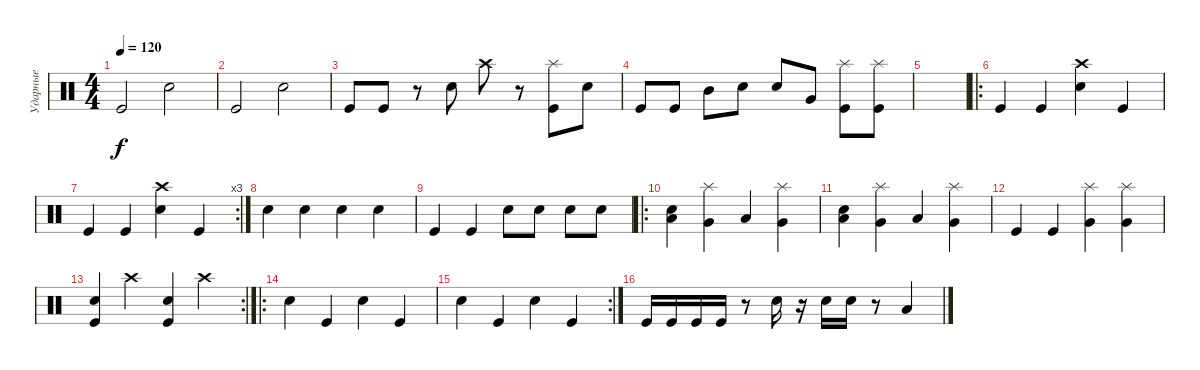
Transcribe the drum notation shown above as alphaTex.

\track ("Ударные" "Ударные") {instrument percussion}
\staff {score}
\articulation defaults
\ts (4 4)
\tempo 120
\clef neutral
\ks c "Kick (hit)".2{dy f} "Snare (hit) 2".2
|
"Kick (hit)".2 "Snare (hit) 2".2 |
"Kick (hit)".8 "Kick (hit)".8 r.8 "Snare (hit) 2".8 "Crash high (hit)".8 r.8 ("Kick (hit)" "Splash (hit)").8 "Snare (hit) 2".8 |
"Kick (hit)".8 "Kick (hit)".8 "Mid Tom (hit)".8 "Snare (hit) 2".8 "Snare (hit) 2".8 "Very Low Tom (hit)".8 ("Kick (hit)" "Splash (hit)").8 ("Kick (hit)" "Splash (hit)").8 |
|
\ro "Kick (hit)".4 "Kick (hit)".4
("Crash high (hit)" "Electric Snare (hit)").4 "Kick (hit)".4 |
\rc 3 "Kick (hit)".4 "Kick (hit)".4
("Crash high (hit)" "Electric Snare (hit)").4 "Kick (hit)".4 |
"Electric Snare (hit)".4 "Electric Snare (hit)".4 "Electric Snare (hit)".4 "Electric Snare (hit)".4 |
"Kick (hit)".4 "Kick (hit)".4 "Electric Snare (hit)".8 "Electric Snare (hit)".8 "Electric Snare (hit)".8 "Electric Snare (hit)".8 |
\ro
("Low Tom (hit)" "Electric Snare (hit)").4 ("Very Low Tom (hit)" "Splash (hit)").4 "Low Tom (hit)".4 ("Very Low Tom (hit)" "Splash (hit)").4 |
("Low Tom (hit)" "Electric Snare (hit)").4 ("Very Low Tom (hit)" "Splash (hit)").4 "Low Tom (hit)".4 ("Very Low Tom (hit)" "Splash (hit)").4 |
"Kick (hit)".4 "Kick (hit)".4 ("Very Low Tom (hit)" "Splash (hit)").4 ("Splash (hit)" "Very Low Tom (hit)").4 |
\rc 2
("Kick (hit)" "Electric Snare (hit)").4 "Crash high (hit)".4 ("Kick (hit)" "Electric Snare (hit)").4 "Crash high (hit)".4 |
\ro "Snare (hit) 2".4 "Kick (hit)".4 "Snare (hit) 2".4 "Kick (hit)".4
|
\rc 2 "Snare (hit) 2".4 "Kick (hit)".4 "Snare (hit) 2".4 "Kick (hit)".4
|
"Kick (hit)".16 "Kick (hit)".16 "Kick (hit)".16 "Kick (hit)".16 r.8 "Electric Snare (hit)".16 r.16 "Electric Snare (hit)".16 "Electric Snare (hit)".16 r.8 "Low Tom (hit)".4
